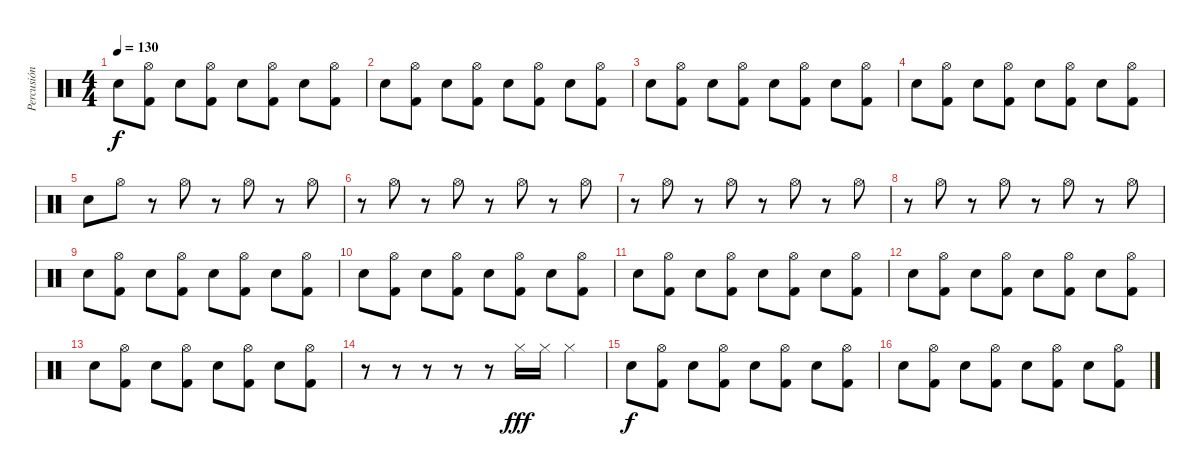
\track ("Percusión" "Percusión") {instrument percussion}
\staff {score}
\articulation defaults
\ts (4 4)
\tempo 130
\clef neutral
\ks c "Snare (hit) 2".8{dy f}
("Hi-Hat (open)" "Kick (hit) 2").8 "Snare (hit) 2".8 ("Hi-Hat (open)" "Kick (hit) 2").8 "Snare (hit) 2".8 ("Hi-Hat (open)" "Kick (hit) 2").8 "Snare (hit) 2".8 ("Hi-Hat (open)" "Kick (hit) 2").8 |
"Snare (hit) 2".8 ("Hi-Hat (open)" "Kick (hit) 2").8 "Snare (hit) 2".8 ("Hi-Hat (open)" "Kick (hit) 2").8 "Snare (hit) 2".8 ("Hi-Hat (open)" "Kick (hit) 2").8 "Snare (hit) 2".8 ("Hi-Hat (open)" "Kick (hit) 2").8 |
"Snare (hit) 2".8 ("Hi-Hat (open)" "Kick (hit) 2").8 "Snare (hit) 2".8 ("Hi-Hat (open)" "Kick (hit) 2").8 "Snare (hit) 2".8 ("Hi-Hat (open)" "Kick (hit) 2").8 "Snare (hit) 2".8 ("Hi-Hat (open)" "Kick (hit) 2").8 |
"Snare (hit) 2".8 ("Hi-Hat (open)" "Kick (hit) 2").8 "Snare (hit) 2".8 ("Hi-Hat (open)" "Kick (hit) 2").8 "Snare (hit) 2".8 ("Hi-Hat (open)" "Kick (hit) 2").8 "Snare (hit) 2".8 ("Hi-Hat (open)" "Kick (hit) 2").8 |
"Snare (hit) 2".8 "Hi-Hat (open)".8 r.8 "Hi-Hat (open)".8 r.8 "Hi-Hat (open)".8 r.8 "Hi-Hat (open)".8 |
r.8 "Hi-Hat (open)".8 r.8 "Hi-Hat (open)".8 r.8 "Hi-Hat (open)".8 r.8 "Hi-Hat (open)".8 |
r.8 "Hi-Hat (open)".8 r.8 "Hi-Hat (open)".8 r.8 "Hi-Hat (open)".8 r.8 "Hi-Hat (open)".8 |
r.8 "Hi-Hat (open)".8 r.8 "Hi-Hat (open)".8 r.8 "Hi-Hat (open)".8 r.8 "Hi-Hat (open)".8 |
"Snare (hit) 2".8 ("Hi-Hat (open)" "Kick (hit) 2").8 "Snare (hit) 2".8 ("Hi-Hat (open)" "Kick (hit) 2").8 "Snare (hit) 2".8 ("Hi-Hat (open)" "Kick (hit) 2").8 "Snare (hit) 2".8 ("Hi-Hat (open)" "Kick (hit) 2").8 |
"Snare (hit) 2".8 ("Hi-Hat (open)" "Kick (hit) 2").8 "Snare (hit) 2".8 ("Hi-Hat (open)" "Kick (hit) 2").8 "Snare (hit) 2".8 ("Hi-Hat (open)" "Kick (hit) 2").8 "Snare (hit) 2".8 ("Hi-Hat (open)" "Kick (hit) 2").8 |
"Snare (hit) 2".8 ("Hi-Hat (open)" "Kick (hit) 2").8 "Snare (hit) 2".8 ("Hi-Hat (open)" "Kick (hit) 2").8 "Snare (hit) 2".8 ("Hi-Hat (open)" "Kick (hit) 2").8 "Snare (hit) 2".8 ("Hi-Hat (open)" "Kick (hit) 2").8 |
"Snare (hit) 2".8 ("Hi-Hat (open)" "Kick (hit) 2").8 "Snare (hit) 2".8 ("Hi-Hat (open)" "Kick (hit) 2").8 "Snare (hit) 2".8 ("Hi-Hat (open)" "Kick (hit) 2").8 "Snare (hit) 2".8 ("Hi-Hat (open)" "Kick (hit) 2").8 |
"Snare (hit) 2".8 ("Hi-Hat (open)" "Kick (hit) 2").8 "Snare (hit) 2".8 ("Hi-Hat (open)" "Kick (hit) 2").8 "Snare (hit) 2".8 ("Hi-Hat (open)" "Kick (hit) 2").8 "Snare (hit) 2".8 ("Hi-Hat (open)" "Kick (hit) 2").8 |
r.8 r.8 r.8 r.8 r.8 "Hi-Hat (closed)".16{dy fff} "Hi-Hat (closed)".16 "Hi-Hat (closed)".4 |
"Snare (hit) 2".8{dy f} ("Hi-Hat (open)" "Kick (hit) 2").8 "Snare (hit) 2".8 ("Hi-Hat (open)" "Kick (hit) 2").8 "Snare (hit) 2".8 ("Hi-Hat (open)" "Kick (hit) 2").8 "Snare (hit) 2".8 ("Hi-Hat (open)" "Kick (hit) 2").8 |
"Snare (hit) 2".8 ("Hi-Hat (open)" "Kick (hit) 2").8 "Snare (hit) 2".8 ("Hi-Hat (open)" "Kick (hit) 2").8 "Snare (hit) 2".8 ("Hi-Hat (open)" "Kick (hit) 2").8 "Snare (hit) 2".8 ("Hi-Hat (open)" "Kick (hit) 2").8
